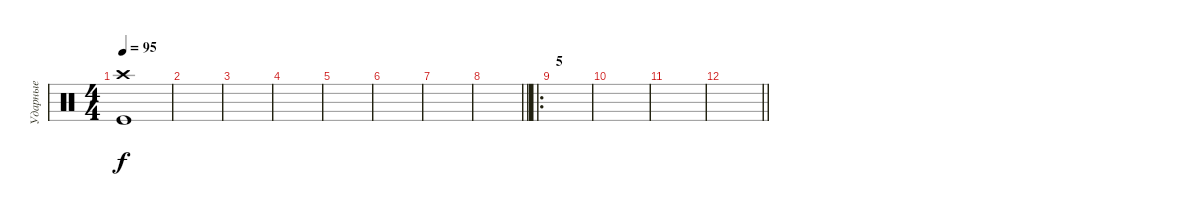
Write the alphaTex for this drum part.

\track ("Ударные" "Ударные") {instrument percussion}
\staff {score}
\articulation defaults
\ts (4 4)
\tempo 95
\clef neutral
\ks c
("Crash high (hit)" "Kick (hit)").1{dy f} |
|
|
|
|
|
|
\barLineRight lightlight
|
\ro
\section ("" "5")
|
|
|
\barLineRight lightlight
